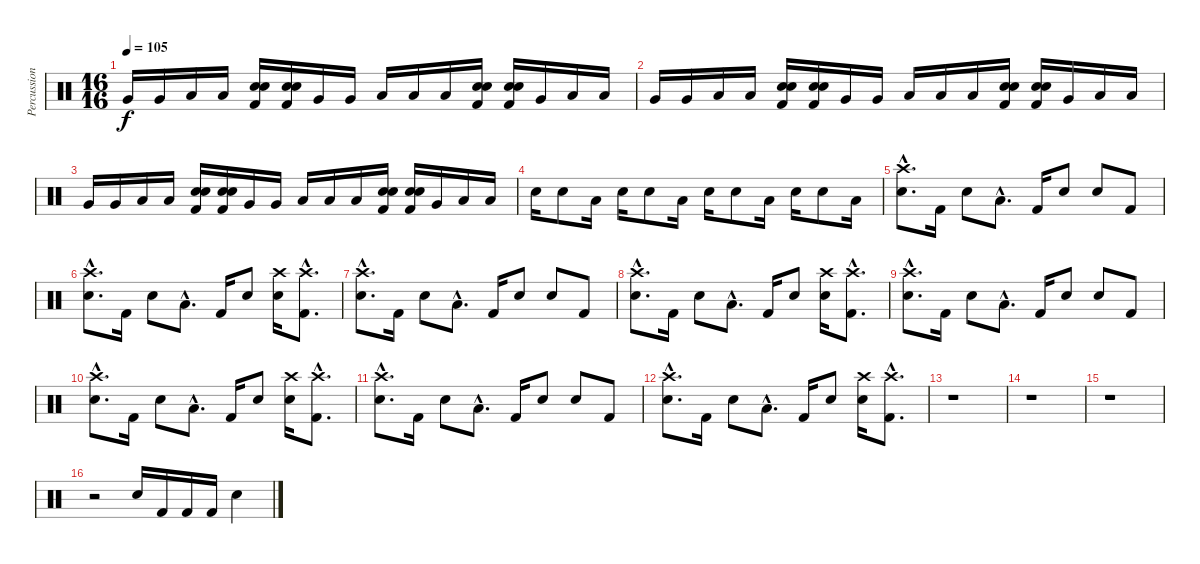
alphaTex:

\track ("Percussion" "Percussion") {instrument percussion}
\staff {score}
\articulation defaults
\ts (16 16)
\tempo 105
\clef neutral
\ks c "Very Low Tom (hit)".16{dy f} "Very Low Tom (hit)".16 "Low Floor Tom (hit)".16 "Low Floor Tom (hit)".16
("Kick (hit) 2" "Snare (hit) 2" "Electric Snare (hit)").16 ("Kick (hit) 2" "Snare (hit) 2" "Electric Snare (hit)").16 "Very Low Tom (hit)".16 "Very Low Tom (hit)".16 "Low Floor Tom (hit)".16 "Low Floor Tom (hit)".16 "Low Floor Tom (hit)".16 ("Kick (hit) 2" "Snare (hit) 2" "Electric Snare (hit)").16 ("Kick (hit) 2" "Snare (hit) 2" "Electric Snare (hit)").16 "Very Low Tom (hit)".16 "Low Floor Tom (hit)".16 "Low Floor Tom (hit)".16 |
"Very Low Tom (hit)".16 "Very Low Tom (hit)".16 "Low Floor Tom (hit)".16 "Low Floor Tom (hit)".16 ("Kick (hit) 2" "Snare (hit) 2" "Electric Snare (hit)").16 ("Kick (hit) 2" "Snare (hit) 2" "Electric Snare (hit)").16 "Very Low Tom (hit)".16 "Very Low Tom (hit)".16 "Low Floor Tom (hit)".16 "Low Floor Tom (hit)".16 "Low Floor Tom (hit)".16 ("Kick (hit) 2" "Snare (hit) 2" "Electric Snare (hit)").16 ("Kick (hit) 2" "Snare (hit) 2" "Electric Snare (hit)").16 "Very Low Tom (hit)".16 "Low Floor Tom (hit)".16 "Low Floor Tom (hit)".16 |
"Very Low Tom (hit)".16 "Very Low Tom (hit)".16 "Low Floor Tom (hit)".16 "Low Floor Tom (hit)".16 ("Kick (hit) 2" "Snare (hit) 2" "Electric Snare (hit)").16 ("Kick (hit) 2" "Snare (hit) 2" "Electric Snare (hit)").16 "Very Low Tom (hit)".16 "Very Low Tom (hit)".16 "Low Floor Tom (hit)".16 "Low Floor Tom (hit)".16 "Low Floor Tom (hit)".16 ("Kick (hit) 2" "Snare (hit) 2" "Electric Snare (hit)").16 ("Kick (hit) 2" "Snare (hit) 2" "Electric Snare (hit)").16 "Very Low Tom (hit)".16 "Low Floor Tom (hit)".16 "Low Floor Tom (hit)".16 |
"Electric Snare (hit)".16 "Electric Snare (hit)".8 "Low Floor Tom (hit)".16 "Electric Snare (hit)".16 "Electric Snare (hit)".8 "Low Floor Tom (hit)".16 "Electric Snare (hit)".16 "Electric Snare (hit)".8 "Low Floor Tom (hit)".16 "Electric Snare (hit)".16 "Electric Snare (hit)".8 "Low Floor Tom (hit)".16 |
("Snare (hit) 2"{hac} "Crash high (hit)"{hac}).8{d} "Kick (hit) 2".16 "Snare (hit) 2".8 "Low Floor Tom (hit)"{hac}.8{d} "Kick (hit) 2".16 "Snare (hit) 2".8 "Snare (hit) 2".8 "Kick (hit) 2".8 |
("Snare (hit) 2"{hac} "Crash high (hit)"{hac}).8{d} "Kick (hit) 2".16 "Snare (hit) 2".8 "Low Floor Tom (hit)"{hac}.8{d} "Kick (hit) 2".16 "Snare (hit) 2".8 ("Snare (hit) 2" "Crash high (hit)").16 ("Kick (hit) 2"{hac} "Crash high (hit)"{hac}).8{d} |
("Snare (hit) 2"{hac} "Crash high (hit)"{hac}).8{d} "Kick (hit) 2".16 "Snare (hit) 2".8 "Low Floor Tom (hit)"{hac}.8{d} "Kick (hit) 2".16 "Snare (hit) 2".8 "Snare (hit) 2".8 "Kick (hit) 2".8 |
("Snare (hit) 2"{hac} "Crash high (hit)"{hac}).8{d} "Kick (hit) 2".16 "Snare (hit) 2".8 "Low Floor Tom (hit)"{hac}.8{d} "Kick (hit) 2".16 "Snare (hit) 2".8 ("Snare (hit) 2" "Crash high (hit)").16 ("Kick (hit) 2"{hac} "Crash high (hit)"{hac}).8{d} |
("Snare (hit) 2"{hac} "Crash high (hit)"{hac}).8{d} "Kick (hit) 2".16 "Snare (hit) 2".8 "Low Floor Tom (hit)"{hac}.8{d} "Kick (hit) 2".16 "Snare (hit) 2".8 "Snare (hit) 2".8 "Kick (hit) 2".8 |
("Snare (hit) 2"{hac} "Crash high (hit)"{hac}).8{d} "Kick (hit) 2".16 "Snare (hit) 2".8 "Low Floor Tom (hit)"{hac}.8{d} "Kick (hit) 2".16 "Snare (hit) 2".8 ("Snare (hit) 2" "Crash high (hit)").16 ("Kick (hit) 2"{hac} "Crash high (hit)"{hac}).8{d} |
("Snare (hit) 2"{hac} "Crash high (hit)"{hac}).8{d} "Kick (hit) 2".16 "Snare (hit) 2".8 "Low Floor Tom (hit)"{hac}.8{d} "Kick (hit) 2".16 "Snare (hit) 2".8 "Snare (hit) 2".8 "Kick (hit) 2".8 |
("Snare (hit) 2"{hac} "Crash high (hit)"{hac}).8{d} "Kick (hit) 2".16 "Snare (hit) 2".8 "Low Floor Tom (hit)"{hac}.8{d} "Kick (hit) 2".16 "Snare (hit) 2".8 ("Snare (hit) 2" "Crash high (hit)").16 ("Kick (hit) 2"{hac} "Crash high (hit)"{hac}).8{d} |
r.1 |
r.1 |
r.1 |
r.2 "Snare (hit) 2".16 "Kick (hit) 2".16 "Kick (hit) 2".16 "Kick (hit) 2".16 "Snare (hit) 2".4
